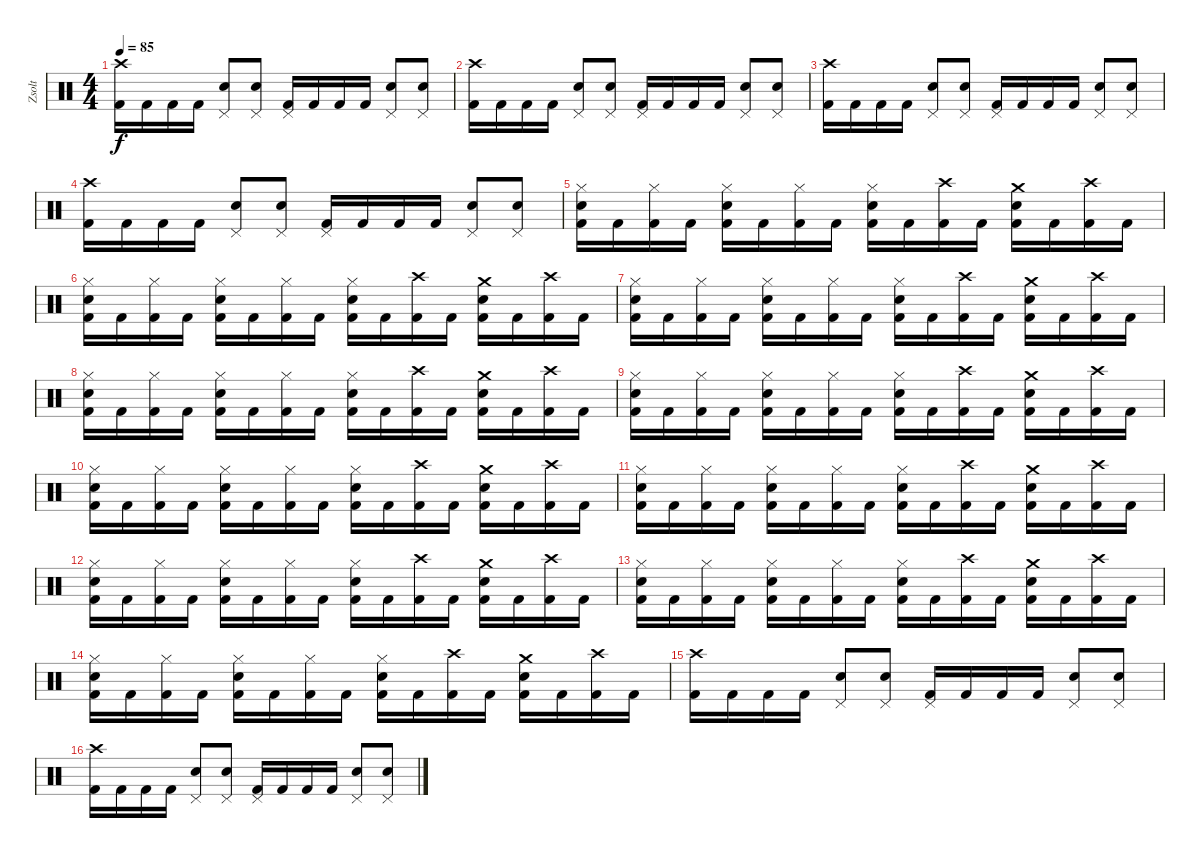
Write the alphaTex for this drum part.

\track ("Zsolt" "Zsolt") {instrument percussion}
\staff {score}
\articulation defaults
\ts (4 4)
\tempo 85
\clef neutral
\ks c
("Crash high (hit)" "Kick (hit) 2").16{dy f} "Kick (hit) 2".16 "Kick (hit) 2".16 "Kick (hit) 2".16 ("Pedal Hi-Hat (hit)" "Electric Snare (hit)").8 ("Pedal Hi-Hat (hit)" "Electric Snare (hit)").8 ("Pedal Hi-Hat (hit)" "Kick (hit) 2").16 "Kick (hit) 2".16 "Kick (hit) 2".16 "Kick (hit) 2".16 ("Pedal Hi-Hat (hit)" "Electric Snare (hit)").8 ("Pedal Hi-Hat (hit)" "Electric Snare (hit)").8 |
("Crash high (hit)" "Kick (hit) 2").16 "Kick (hit) 2".16 "Kick (hit) 2".16 "Kick (hit) 2".16 ("Pedal Hi-Hat (hit)" "Electric Snare (hit)").8 ("Pedal Hi-Hat (hit)" "Electric Snare (hit)").8 ("Pedal Hi-Hat (hit)" "Kick (hit) 2").16 "Kick (hit) 2".16 "Kick (hit) 2".16 "Kick (hit) 2".16 ("Pedal Hi-Hat (hit)" "Electric Snare (hit)").8 ("Pedal Hi-Hat (hit)" "Electric Snare (hit)").8 |
("Crash high (hit)" "Kick (hit) 2").16 "Kick (hit) 2".16 "Kick (hit) 2".16 "Kick (hit) 2".16 ("Pedal Hi-Hat (hit)" "Electric Snare (hit)").8 ("Pedal Hi-Hat (hit)" "Electric Snare (hit)").8 ("Pedal Hi-Hat (hit)" "Kick (hit) 2").16 "Kick (hit) 2".16 "Kick (hit) 2".16 "Kick (hit) 2".16 ("Pedal Hi-Hat (hit)" "Electric Snare (hit)").8 ("Pedal Hi-Hat (hit)" "Electric Snare (hit)").8 |
("Crash high (hit)" "Kick (hit) 2").16 "Kick (hit) 2".16 "Kick (hit) 2".16 "Kick (hit) 2".16 ("Pedal Hi-Hat (hit)" "Electric Snare (hit)").8 ("Pedal Hi-Hat (hit)" "Electric Snare (hit)").8 ("Pedal Hi-Hat (hit)" "Kick (hit) 2").16 "Kick (hit) 2".16 "Kick (hit) 2".16 "Kick (hit) 2".16 ("Pedal Hi-Hat (hit)" "Electric Snare (hit)").8 ("Pedal Hi-Hat (hit)" "Electric Snare (hit)").8 |
("Hi-Hat (closed)" "Electric Snare (hit)" "Kick (hit) 2").16 "Kick (hit) 2".16 ("Hi-Hat (closed)" "Kick (hit) 2").16 "Kick (hit) 2".16 ("Hi-Hat (closed)" "Electric Snare (hit)" "Kick (hit) 2").16 "Kick (hit) 2".16 ("Hi-Hat (closed)" "Kick (hit) 2").16 "Kick (hit) 2".16 ("Hi-Hat (closed)" "Electric Snare (hit)" "Kick (hit) 2").16 "Kick (hit) 2".16 ("Crash high (hit)" "Kick (hit) 2").16 "Kick (hit) 2".16 ("Crash medium (hit)" "Electric Snare (hit)" "Kick (hit) 2").16 "Kick (hit) 2".16 ("Crash high (hit)" "Kick (hit) 2").16 "Kick (hit) 2".16 |
("Hi-Hat (closed)" "Electric Snare (hit)" "Kick (hit) 2").16 "Kick (hit) 2".16 ("Hi-Hat (closed)" "Kick (hit) 2").16 "Kick (hit) 2".16 ("Hi-Hat (closed)" "Electric Snare (hit)" "Kick (hit) 2").16 "Kick (hit) 2".16 ("Hi-Hat (closed)" "Kick (hit) 2").16 "Kick (hit) 2".16 ("Hi-Hat (closed)" "Electric Snare (hit)" "Kick (hit) 2").16 "Kick (hit) 2".16 ("Crash high (hit)" "Kick (hit) 2").16 "Kick (hit) 2".16 ("Crash medium (hit)" "Electric Snare (hit)" "Kick (hit) 2").16 "Kick (hit) 2".16 ("Crash high (hit)" "Kick (hit) 2").16 "Kick (hit) 2".16 |
("Hi-Hat (closed)" "Electric Snare (hit)" "Kick (hit) 2").16 "Kick (hit) 2".16 ("Hi-Hat (closed)" "Kick (hit) 2").16 "Kick (hit) 2".16 ("Hi-Hat (closed)" "Electric Snare (hit)" "Kick (hit) 2").16 "Kick (hit) 2".16 ("Hi-Hat (closed)" "Kick (hit) 2").16 "Kick (hit) 2".16 ("Hi-Hat (closed)" "Electric Snare (hit)" "Kick (hit) 2").16 "Kick (hit) 2".16 ("Crash high (hit)" "Kick (hit) 2").16 "Kick (hit) 2".16 ("Crash medium (hit)" "Electric Snare (hit)" "Kick (hit) 2").16 "Kick (hit) 2".16 ("Crash high (hit)" "Kick (hit) 2").16 "Kick (hit) 2".16 |
("Hi-Hat (closed)" "Electric Snare (hit)" "Kick (hit) 2").16 "Kick (hit) 2".16 ("Hi-Hat (closed)" "Kick (hit) 2").16 "Kick (hit) 2".16 ("Hi-Hat (closed)" "Electric Snare (hit)" "Kick (hit) 2").16 "Kick (hit) 2".16 ("Hi-Hat (closed)" "Kick (hit) 2").16 "Kick (hit) 2".16 ("Hi-Hat (closed)" "Electric Snare (hit)" "Kick (hit) 2").16 "Kick (hit) 2".16 ("Crash high (hit)" "Kick (hit) 2").16 "Kick (hit) 2".16 ("Crash medium (hit)" "Electric Snare (hit)" "Kick (hit) 2").16 "Kick (hit) 2".16 ("Crash high (hit)" "Kick (hit) 2").16 "Kick (hit) 2".16 |
("Hi-Hat (closed)" "Electric Snare (hit)" "Kick (hit) 2").16 "Kick (hit) 2".16 ("Hi-Hat (closed)" "Kick (hit) 2").16 "Kick (hit) 2".16 ("Hi-Hat (closed)" "Electric Snare (hit)" "Kick (hit) 2").16 "Kick (hit) 2".16 ("Hi-Hat (closed)" "Kick (hit) 2").16 "Kick (hit) 2".16 ("Hi-Hat (closed)" "Electric Snare (hit)" "Kick (hit) 2").16 "Kick (hit) 2".16 ("Crash high (hit)" "Kick (hit) 2").16 "Kick (hit) 2".16 ("Crash medium (hit)" "Electric Snare (hit)" "Kick (hit) 2").16 "Kick (hit) 2".16 ("Crash high (hit)" "Kick (hit) 2").16 "Kick (hit) 2".16 |
("Hi-Hat (closed)" "Electric Snare (hit)" "Kick (hit) 2").16 "Kick (hit) 2".16 ("Hi-Hat (closed)" "Kick (hit) 2").16 "Kick (hit) 2".16 ("Hi-Hat (closed)" "Electric Snare (hit)" "Kick (hit) 2").16 "Kick (hit) 2".16 ("Hi-Hat (closed)" "Kick (hit) 2").16 "Kick (hit) 2".16 ("Hi-Hat (closed)" "Electric Snare (hit)" "Kick (hit) 2").16 "Kick (hit) 2".16 ("Crash high (hit)" "Kick (hit) 2").16 "Kick (hit) 2".16 ("Crash medium (hit)" "Electric Snare (hit)" "Kick (hit) 2").16 "Kick (hit) 2".16 ("Crash high (hit)" "Kick (hit) 2").16 "Kick (hit) 2".16 |
("Hi-Hat (closed)" "Electric Snare (hit)" "Kick (hit) 2").16 "Kick (hit) 2".16 ("Hi-Hat (closed)" "Kick (hit) 2").16 "Kick (hit) 2".16 ("Hi-Hat (closed)" "Electric Snare (hit)" "Kick (hit) 2").16 "Kick (hit) 2".16 ("Hi-Hat (closed)" "Kick (hit) 2").16 "Kick (hit) 2".16 ("Hi-Hat (closed)" "Electric Snare (hit)" "Kick (hit) 2").16 "Kick (hit) 2".16 ("Crash high (hit)" "Kick (hit) 2").16 "Kick (hit) 2".16 ("Crash medium (hit)" "Electric Snare (hit)" "Kick (hit) 2").16 "Kick (hit) 2".16 ("Crash high (hit)" "Kick (hit) 2").16 "Kick (hit) 2".16 |
("Hi-Hat (closed)" "Electric Snare (hit)" "Kick (hit) 2").16 "Kick (hit) 2".16 ("Hi-Hat (closed)" "Kick (hit) 2").16 "Kick (hit) 2".16 ("Hi-Hat (closed)" "Electric Snare (hit)" "Kick (hit) 2").16 "Kick (hit) 2".16 ("Hi-Hat (closed)" "Kick (hit) 2").16 "Kick (hit) 2".16 ("Hi-Hat (closed)" "Electric Snare (hit)" "Kick (hit) 2").16 "Kick (hit) 2".16 ("Crash high (hit)" "Kick (hit) 2").16 "Kick (hit) 2".16 ("Crash medium (hit)" "Electric Snare (hit)" "Kick (hit) 2").16 "Kick (hit) 2".16 ("Crash high (hit)" "Kick (hit) 2").16 "Kick (hit) 2".16 |
("Hi-Hat (closed)" "Electric Snare (hit)" "Kick (hit) 2").16 "Kick (hit) 2".16 ("Hi-Hat (closed)" "Kick (hit) 2").16 "Kick (hit) 2".16 ("Hi-Hat (closed)" "Electric Snare (hit)" "Kick (hit) 2").16 "Kick (hit) 2".16 ("Hi-Hat (closed)" "Kick (hit) 2").16 "Kick (hit) 2".16 ("Hi-Hat (closed)" "Electric Snare (hit)" "Kick (hit) 2").16 "Kick (hit) 2".16 ("Crash high (hit)" "Kick (hit) 2").16 "Kick (hit) 2".16 ("Crash medium (hit)" "Electric Snare (hit)" "Kick (hit) 2").16 "Kick (hit) 2".16 ("Crash high (hit)" "Kick (hit) 2").16 "Kick (hit) 2".16 |
("Hi-Hat (closed)" "Electric Snare (hit)" "Kick (hit) 2").16 "Kick (hit) 2".16 ("Hi-Hat (closed)" "Kick (hit) 2").16 "Kick (hit) 2".16 ("Hi-Hat (closed)" "Electric Snare (hit)" "Kick (hit) 2").16 "Kick (hit) 2".16 ("Hi-Hat (closed)" "Kick (hit) 2").16 "Kick (hit) 2".16 ("Hi-Hat (closed)" "Electric Snare (hit)" "Kick (hit) 2").16 "Kick (hit) 2".16 ("Crash high (hit)" "Kick (hit) 2").16 "Kick (hit) 2".16 ("Crash medium (hit)" "Electric Snare (hit)" "Kick (hit) 2").16 "Kick (hit) 2".16 ("Crash high (hit)" "Kick (hit) 2").16 "Kick (hit) 2".16 |
("Crash high (hit)" "Kick (hit) 2").16 "Kick (hit) 2".16 "Kick (hit) 2".16 "Kick (hit) 2".16 ("Pedal Hi-Hat (hit)" "Electric Snare (hit)").8 ("Pedal Hi-Hat (hit)" "Electric Snare (hit)").8 ("Pedal Hi-Hat (hit)" "Kick (hit) 2").16 "Kick (hit) 2".16 "Kick (hit) 2".16 "Kick (hit) 2".16 ("Pedal Hi-Hat (hit)" "Electric Snare (hit)").8 ("Pedal Hi-Hat (hit)" "Electric Snare (hit)").8 |
("Crash high (hit)" "Kick (hit) 2").16 "Kick (hit) 2".16 "Kick (hit) 2".16 "Kick (hit) 2".16 ("Pedal Hi-Hat (hit)" "Electric Snare (hit)").8 ("Pedal Hi-Hat (hit)" "Electric Snare (hit)").8 ("Pedal Hi-Hat (hit)" "Kick (hit) 2").16 "Kick (hit) 2".16 "Kick (hit) 2".16 "Kick (hit) 2".16 ("Pedal Hi-Hat (hit)" "Electric Snare (hit)").8 ("Pedal Hi-Hat (hit)" "Electric Snare (hit)").8
